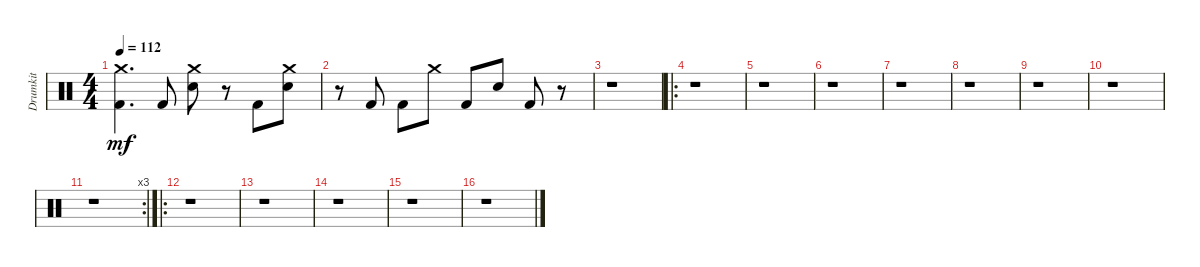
\track ("Drumkit" "Drumkit") {instrument percussion}
\staff {score}
\articulation defaults
\ts (4 4)
\tempo 112
\clef neutral
\ks c
("Kick (hit) 2" "Crash medium (hit)").4{d dy mf} "Kick (hit) 2".8 ("Snare (hit) 2" "Crash medium (hit)").8 r.8 "Kick (hit) 2".8 ("Snare (hit) 2" "Crash medium (hit)").8 |
r.8 "Kick (hit) 2".8 "Kick (hit) 2".8 "Crash medium (hit)".8 "Kick (hit) 2".8 "Snare (hit) 2".8 "Kick (hit) 2".8 r.8 |
r.1 |
\ro
r.1 |
r.1 |
r.1 |
r.1 |
r.1 |
r.1 |
r.1 |
\rc 3
r.1 |
\ro
r.1 |
r.1 |
r.1 |
r.1 |
r.1
